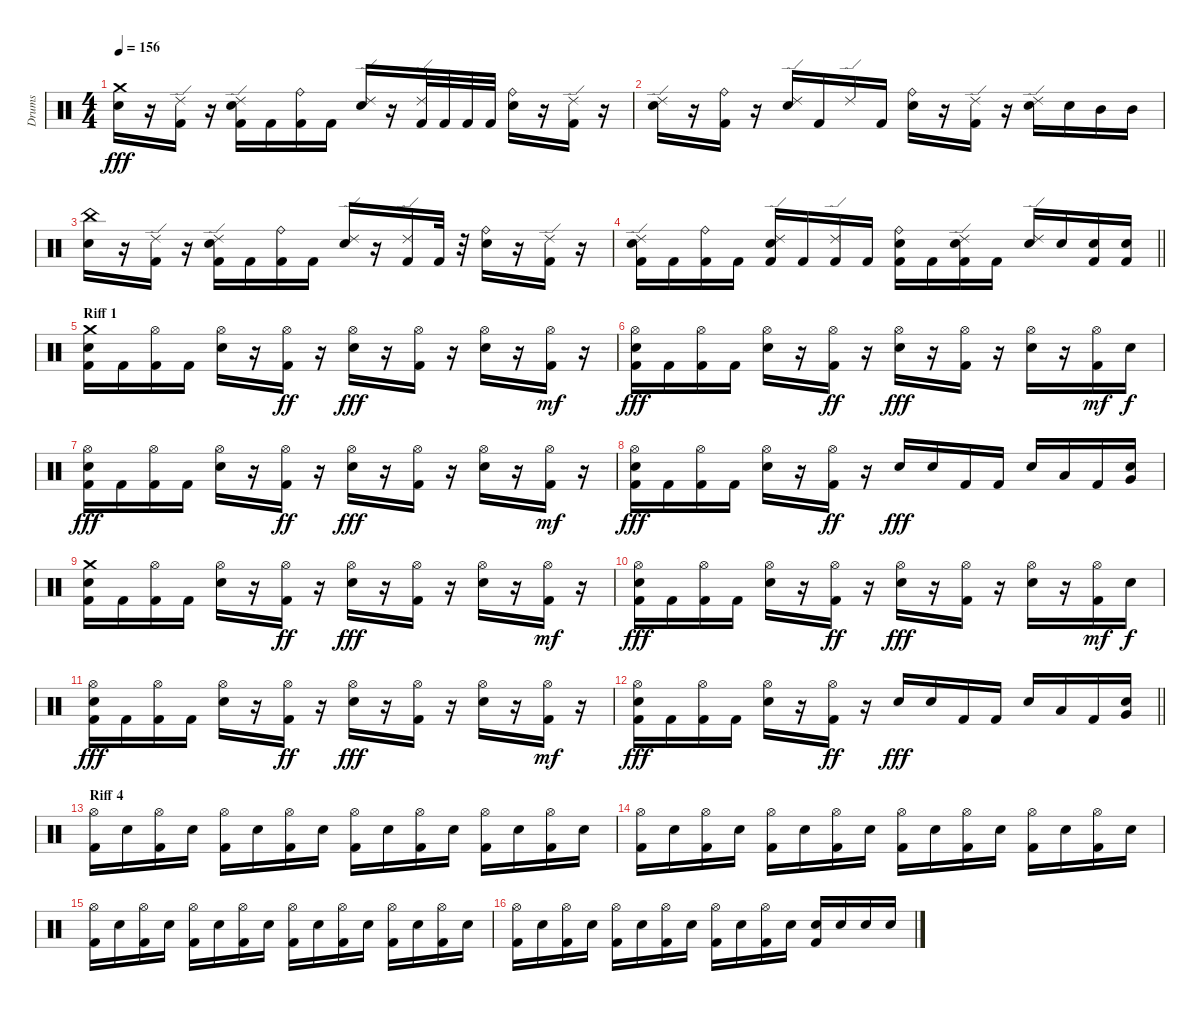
\track ("Drums" "Drums") {instrument percussion}
\staff {score}
\articulation defaults
\ts (4 4)
\tempo 156
\clef neutral
\ks c
("Snare (hit) 2" "Crash medium (hit)").16{dy fff} r.16 ("Kick (hit) 2" "Ride (edge) 2").16 r.16 ("Kick (hit) 2" "Snare (hit) 2" "Ride (edge) 2").16 "Kick (hit) 2".16 ("Kick (hit) 2" "Ride (bell)").16 "Kick (hit) 2".16 ("Snare (hit) 2" "Ride (edge) 2").16 r.16 ("Kick (hit) 2" "Ride (edge) 2").32 "Kick (hit) 2".32 "Kick (hit) 2".32 "Kick (hit) 2".32 ("Snare (hit) 2" "Ride (bell)").16 r.16 ("Kick (hit) 2" "Ride (edge) 2").16 r.16 |
("Snare (hit) 2" "Ride (edge) 2").16 r.16 ("Kick (hit) 2" "Ride (bell)").16 r.16 ("Snare (hit) 2" "Ride (edge) 2").16 "Kick (hit) 2".16 "Ride (edge) 2".16 "Kick (hit) 2".16 ("Snare (hit) 2" "Ride (bell)").16 r.16 ("Kick (hit) 2" "Ride (edge) 2").16 r.16 ("Snare (hit) 2" "Ride (edge) 2").16 "Snare (hit) 2".16 "Mid Tom (hit)".16 "Mid Tom (hit)".16 |
("Snare (hit) 2" "China (hit)").16 r.16 ("Kick (hit) 2" "Ride (edge) 2").16 r.16 ("Kick (hit) 2" "Snare (hit) 2" "Ride (edge) 2").16 "Kick (hit) 2".16 ("Kick (hit) 2" "Ride (bell)").16 "Kick (hit) 2".16 ("Snare (hit) 2" "Ride (edge) 2").16 r.16 ("Kick (hit) 2" "Ride (edge) 2").16 "Kick (hit) 2".32 r.32 ("Snare (hit) 2" "Ride (bell)").16 r.16 ("Kick (hit) 2" "Ride (edge) 2").16 r.16 |
\barLineRight lightlight
("Kick (hit) 2" "Snare (hit) 2" "Ride (edge) 2").16 "Kick (hit) 2".16 ("Kick (hit) 2" "Ride (bell)").16 "Kick (hit) 2".16 ("Kick (hit) 2" "Snare (hit) 2" "Ride (edge) 2").16 "Kick (hit) 2".16 ("Kick (hit) 2" "Ride (edge) 2").16 "Kick (hit) 2".16 ("Kick (hit) 2" "Snare (hit) 2" "Ride (bell)").16 "Kick (hit) 2".16 ("Kick (hit) 2" "Snare (hit) 2" "Ride (edge) 2").16 "Kick (hit) 2".16 ("Snare (hit) 2" "Ride (edge) 2").16 "Snare (hit) 2".16 ("Kick (hit) 2" "Snare (hit) 2").16 ("Kick (hit) 2" "Snare (hit) 2").16 |
\section ("" "Riff 1")
("Kick (hit) 2" "Snare (hit) 2" "Crash medium (hit)").16 "Kick (hit) 2".16 ("Kick (hit) 2" "Hi-Hat (open)").16 "Kick (hit) 2".16 ("Snare (hit) 2" "Hi-Hat (open)").16 r.16 ("Kick (hit) 2" "Hi-Hat (open)").16{dy ff} r.16 ("Snare (hit) 2" "Hi-Hat (open)").16{dy fff} r.16 ("Kick (hit) 2" "Hi-Hat (open)").16 r.16 ("Snare (hit) 2" "Hi-Hat (open)").16 r.16 ("Kick (hit) 2" "Hi-Hat (open)").16{dy mf} r.16 |
("Kick (hit) 2" "Snare (hit) 2" "Hi-Hat (open)").16{dy fff} "Kick (hit) 2".16 ("Kick (hit) 2" "Hi-Hat (open)").16 "Kick (hit) 2".16 ("Snare (hit) 2" "Hi-Hat (open)").16 r.16 ("Kick (hit) 2" "Hi-Hat (open)").16{dy ff} r.16 ("Snare (hit) 2" "Hi-Hat (open)").16{dy fff} r.16 ("Kick (hit) 2" "Hi-Hat (open)").16 r.16 ("Snare (hit) 2" "Hi-Hat (open)").16 r.16 ("Kick (hit) 2" "Hi-Hat (open)").16{dy mf} "Snare (hit) 2".16{dy f} |
("Kick (hit) 2" "Snare (hit) 2" "Hi-Hat (open)").16{dy fff} "Kick (hit) 2".16 ("Kick (hit) 2" "Hi-Hat (open)").16 "Kick (hit) 2".16 ("Snare (hit) 2" "Hi-Hat (open)").16 r.16 ("Kick (hit) 2" "Hi-Hat (open)").16{dy ff} r.16 ("Snare (hit) 2" "Hi-Hat (open)").16{dy fff} r.16 ("Kick (hit) 2" "Hi-Hat (open)").16 r.16 ("Snare (hit) 2" "Hi-Hat (open)").16 r.16 ("Kick (hit) 2" "Hi-Hat (open)").16{dy mf} r.16 |
("Kick (hit) 2" "Snare (hit) 2" "Hi-Hat (open)").16{dy fff} "Kick (hit) 2".16 ("Kick (hit) 2" "Hi-Hat (open)").16 "Kick (hit) 2".16 ("Snare (hit) 2" "Hi-Hat (open)").16 r.16 ("Kick (hit) 2" "Hi-Hat (open)").16{dy ff} r.16 "Snare (hit) 2".16{dy fff} "Snare (hit) 2".16 "Kick (hit) 2".16 "Kick (hit) 2".16 "Snare (hit) 2".16 "Low Tom (hit)".16 "Kick (hit) 2".16 ("Snare (hit) 2" "Very Low Tom (hit)").16 |
("Kick (hit) 2" "Snare (hit) 2" "Crash medium (hit)").16 "Kick (hit) 2".16 ("Kick (hit) 2" "Hi-Hat (open)").16 "Kick (hit) 2".16 ("Snare (hit) 2" "Hi-Hat (open)").16 r.16 ("Kick (hit) 2" "Hi-Hat (open)").16{dy ff} r.16 ("Snare (hit) 2" "Hi-Hat (open)").16{dy fff} r.16 ("Kick (hit) 2" "Hi-Hat (open)").16 r.16 ("Snare (hit) 2" "Hi-Hat (open)").16 r.16 ("Kick (hit) 2" "Hi-Hat (open)").16{dy mf} r.16 |
("Kick (hit) 2" "Snare (hit) 2" "Hi-Hat (open)").16{dy fff} "Kick (hit) 2".16 ("Kick (hit) 2" "Hi-Hat (open)").16 "Kick (hit) 2".16 ("Snare (hit) 2" "Hi-Hat (open)").16 r.16 ("Kick (hit) 2" "Hi-Hat (open)").16{dy ff} r.16 ("Snare (hit) 2" "Hi-Hat (open)").16{dy fff} r.16 ("Kick (hit) 2" "Hi-Hat (open)").16 r.16 ("Snare (hit) 2" "Hi-Hat (open)").16 r.16 ("Kick (hit) 2" "Hi-Hat (open)").16{dy mf} "Snare (hit) 2".16{dy f} |
("Kick (hit) 2" "Snare (hit) 2" "Hi-Hat (open)").16{dy fff} "Kick (hit) 2".16 ("Kick (hit) 2" "Hi-Hat (open)").16 "Kick (hit) 2".16 ("Snare (hit) 2" "Hi-Hat (open)").16 r.16 ("Kick (hit) 2" "Hi-Hat (open)").16{dy ff} r.16 ("Snare (hit) 2" "Hi-Hat (open)").16{dy fff} r.16 ("Kick (hit) 2" "Hi-Hat (open)").16 r.16 ("Snare (hit) 2" "Hi-Hat (open)").16 r.16 ("Kick (hit) 2" "Hi-Hat (open)").16{dy mf} r.16 |
\barLineRight lightlight
("Kick (hit) 2" "Snare (hit) 2" "Hi-Hat (open)").16{dy fff} "Kick (hit) 2".16 ("Kick (hit) 2" "Hi-Hat (open)").16 "Kick (hit) 2".16 ("Snare (hit) 2" "Hi-Hat (open)").16 r.16 ("Kick (hit) 2" "Hi-Hat (open)").16{dy ff} r.16 "Snare (hit) 2".16{dy fff} "Snare (hit) 2".16 "Kick (hit) 2".16 "Kick (hit) 2".16 "Snare (hit) 2".16 "Low Tom (hit)".16 "Kick (hit) 2".16 ("Snare (hit) 2" "Very Low Tom (hit)").16 |
\section ("" "Riff 4")
("Kick (hit) 2" "Hi-Hat (open)").16 "Snare (hit) 2".16 ("Kick (hit) 2" "Hi-Hat (open)").16 "Snare (hit) 2".16 ("Kick (hit) 2" "Hi-Hat (open)").16 "Snare (hit) 2".16 ("Kick (hit) 2" "Hi-Hat (open)").16 "Snare (hit) 2".16 ("Kick (hit) 2" "Hi-Hat (open)").16 "Snare (hit) 2".16 ("Kick (hit) 2" "Hi-Hat (open)").16 "Snare (hit) 2".16 ("Kick (hit) 2" "Hi-Hat (open)").16 "Snare (hit) 2".16 ("Kick (hit) 2" "Hi-Hat (open)").16 "Snare (hit) 2".16 |
("Kick (hit) 2" "Hi-Hat (open)").16 "Snare (hit) 2".16 ("Kick (hit) 2" "Hi-Hat (open)").16 "Snare (hit) 2".16 ("Kick (hit) 2" "Hi-Hat (open)").16 "Snare (hit) 2".16 ("Kick (hit) 2" "Hi-Hat (open)").16 "Snare (hit) 2".16 ("Kick (hit) 2" "Hi-Hat (open)").16 "Snare (hit) 2".16 ("Kick (hit) 2" "Hi-Hat (open)").16 "Snare (hit) 2".16 ("Kick (hit) 2" "Hi-Hat (open)").16 "Snare (hit) 2".16 ("Kick (hit) 2" "Hi-Hat (open)").16 "Snare (hit) 2".16 |
("Kick (hit) 2" "Hi-Hat (open)").16 "Snare (hit) 2".16 ("Kick (hit) 2" "Hi-Hat (open)").16 "Snare (hit) 2".16 ("Kick (hit) 2" "Hi-Hat (open)").16 "Snare (hit) 2".16 ("Kick (hit) 2" "Hi-Hat (open)").16 "Snare (hit) 2".16 ("Kick (hit) 2" "Hi-Hat (open)").16 "Snare (hit) 2".16 ("Kick (hit) 2" "Hi-Hat (open)").16 "Snare (hit) 2".16 ("Kick (hit) 2" "Hi-Hat (open)").16 "Snare (hit) 2".16 ("Kick (hit) 2" "Hi-Hat (open)").16 "Snare (hit) 2".16 |
("Kick (hit) 2" "Hi-Hat (open)").16 "Snare (hit) 2".16 ("Kick (hit) 2" "Hi-Hat (open)").16 "Snare (hit) 2".16 ("Kick (hit) 2" "Hi-Hat (open)").16 "Snare (hit) 2".16 ("Kick (hit) 2" "Hi-Hat (open)").16 "Snare (hit) 2".16 ("Kick (hit) 2" "Hi-Hat (open)").16 "Snare (hit) 2".16 ("Kick (hit) 2" "Hi-Hat (open)").16 "Snare (hit) 2".16 ("Kick (hit) 2" "Snare (hit) 2").16 "Snare (hit) 2".16 "Snare (hit) 2".16 "Snare (hit) 2".16
